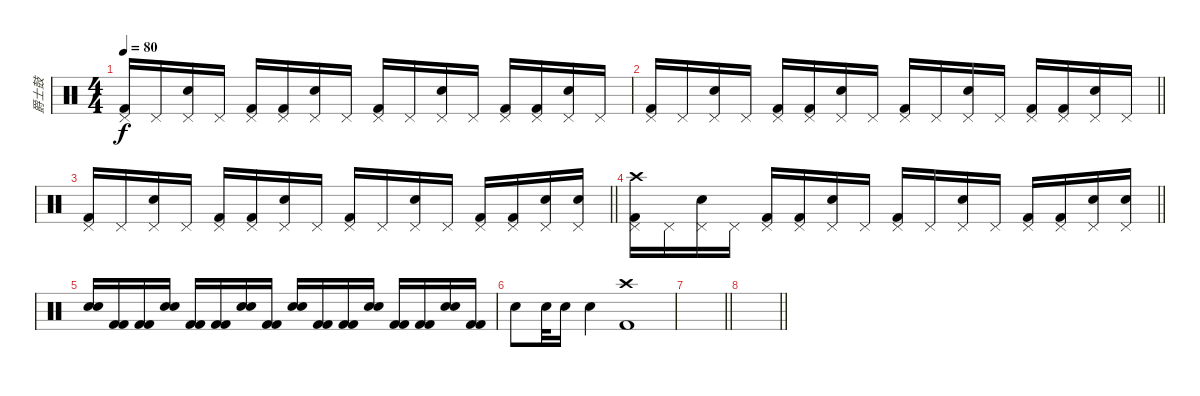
\track ("爵士鼓" "爵士鼓") {instrument percussion}
\staff {score}
\articulation defaults
\ts (4 4)
\tempo 80
\clef neutral
\ks c
("Pedal Hi-Hat (hit)" "Kick (hit) 2").16{dy f} "Pedal Hi-Hat (hit)".16 ("Pedal Hi-Hat (hit)" "Snare (hit) 2").16 "Pedal Hi-Hat (hit)".16 ("Pedal Hi-Hat (hit)" "Kick (hit) 2").16 ("Pedal Hi-Hat (hit)" "Kick (hit) 2").16 ("Pedal Hi-Hat (hit)" "Snare (hit) 2").16 "Pedal Hi-Hat (hit)".16 ("Pedal Hi-Hat (hit)" "Kick (hit) 2").16 "Pedal Hi-Hat (hit)".16 ("Pedal Hi-Hat (hit)" "Snare (hit) 2").16 "Pedal Hi-Hat (hit)".16 ("Pedal Hi-Hat (hit)" "Kick (hit) 2").16 ("Pedal Hi-Hat (hit)" "Kick (hit) 2").16 ("Pedal Hi-Hat (hit)" "Snare (hit) 2").16 "Pedal Hi-Hat (hit)".16 |
\barLineRight lightlight
("Pedal Hi-Hat (hit)" "Kick (hit) 2").16 "Pedal Hi-Hat (hit)".16 ("Pedal Hi-Hat (hit)" "Snare (hit) 2").16 "Pedal Hi-Hat (hit)".16 ("Pedal Hi-Hat (hit)" "Kick (hit) 2").16 ("Pedal Hi-Hat (hit)" "Kick (hit) 2").16 ("Pedal Hi-Hat (hit)" "Snare (hit) 2").16 "Pedal Hi-Hat (hit)".16 ("Pedal Hi-Hat (hit)" "Kick (hit) 2").16 "Pedal Hi-Hat (hit)".16 ("Pedal Hi-Hat (hit)" "Snare (hit) 2").16 "Pedal Hi-Hat (hit)".16 ("Pedal Hi-Hat (hit)" "Kick (hit) 2").16 ("Pedal Hi-Hat (hit)" "Kick (hit) 2").16 ("Pedal Hi-Hat (hit)" "Snare (hit) 2").16 "Pedal Hi-Hat (hit)".16 |
\barLineRight lightlight
("Pedal Hi-Hat (hit)" "Kick (hit) 2").16 "Pedal Hi-Hat (hit)".16 ("Pedal Hi-Hat (hit)" "Snare (hit) 2").16 "Pedal Hi-Hat (hit)".16 ("Pedal Hi-Hat (hit)" "Kick (hit) 2").16 ("Pedal Hi-Hat (hit)" "Kick (hit) 2").16 ("Pedal Hi-Hat (hit)" "Snare (hit) 2").16 "Pedal Hi-Hat (hit)".16 ("Pedal Hi-Hat (hit)" "Kick (hit) 2").16 "Pedal Hi-Hat (hit)".16 ("Pedal Hi-Hat (hit)" "Snare (hit) 2").16 "Pedal Hi-Hat (hit)".16 ("Pedal Hi-Hat (hit)" "Kick (hit) 2").16 ("Pedal Hi-Hat (hit)" "Kick (hit) 2").16 ("Pedal Hi-Hat (hit)" "Snare (hit) 2").16 ("Pedal Hi-Hat (hit)" "Snare (hit) 2").16 |
\barLineRight lightlight
("Pedal Hi-Hat (hit)" "Kick (hit) 2" "Crash high (hit)").16 "Pedal Hi-Hat (hit)".16 ("Pedal Hi-Hat (hit)" "Snare (hit) 2").16 "Pedal Hi-Hat (hit)".16 ("Pedal Hi-Hat (hit)" "Kick (hit) 2").16 ("Pedal Hi-Hat (hit)" "Kick (hit) 2").16 ("Pedal Hi-Hat (hit)" "Snare (hit) 2").16 "Pedal Hi-Hat (hit)".16 ("Pedal Hi-Hat (hit)" "Kick (hit) 2").16 "Pedal Hi-Hat (hit)".16 ("Pedal Hi-Hat (hit)" "Snare (hit) 2").16 "Pedal Hi-Hat (hit)".16 ("Pedal Hi-Hat (hit)" "Kick (hit) 2").16 ("Pedal Hi-Hat (hit)" "Kick (hit) 2").16 ("Pedal Hi-Hat (hit)" "Snare (hit) 2").16 ("Pedal Hi-Hat (hit)" "Snare (hit) 2").16 |
("Snare (hit) 2" "Snare (hit) 2").16 ("Kick (hit) 2" "Kick (hit) 2").16 ("Kick (hit) 2" "Kick (hit) 2").16 ("Snare (hit) 2" "Snare (hit) 2").16 ("Kick (hit) 2" "Kick (hit) 2").16 ("Kick (hit) 2" "Kick (hit) 2").16 ("Snare (hit) 2" "Snare (hit) 2").16 ("Kick (hit) 2" "Kick (hit) 2").16 ("Snare (hit) 2" "Snare (hit) 2").16 ("Kick (hit) 2" "Kick (hit) 2").16 ("Kick (hit) 2" "Kick (hit) 2").16 ("Snare (hit) 2" "Snare (hit) 2").16 ("Kick (hit) 2" "Kick (hit) 2").16 ("Kick (hit) 2" "Kick (hit) 2").16 ("Snare (hit) 2" "Snare (hit) 2").16 ("Kick (hit) 2" "Kick (hit) 2").16 |
"Snare (hit) 2".8 "Snare (hit) 2".32 "Snare (hit) 2".16 "Snare (hit) 2".4 ("Crash high (hit)" "Kick (hit) 2").1 |
\barLineRight lightlight
|
\barLineRight lightlight
